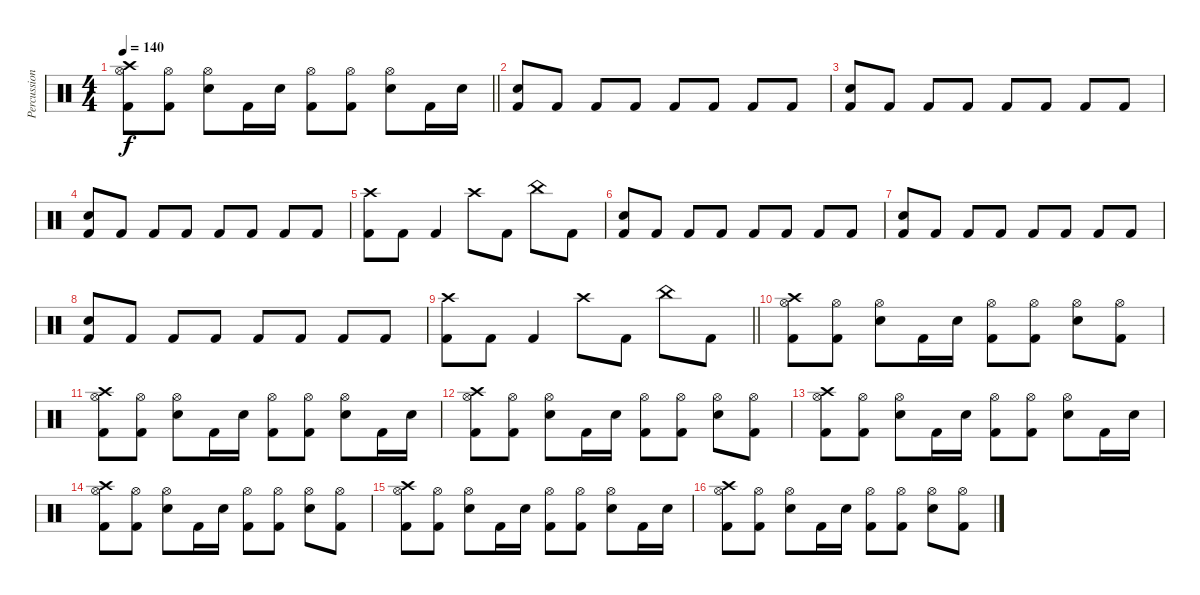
\track ("Percussion" "Percussion") {instrument percussion}
\staff {score}
\articulation defaults
\ts (4 4)
\tempo 140
\clef neutral
\barLineRight lightlight
\ks c
("Hi-Hat (open)" "Crash high (hit)" "Kick (hit) 2").8{dy f} ("Hi-Hat (open)" "Kick (hit) 2").8 ("Hi-Hat (open)" "Snare (hit) 2").8 "Kick (hit) 2".16 "Snare (hit) 2".16 ("Hi-Hat (open)" "Kick (hit) 2").8 ("Hi-Hat (open)" "Kick (hit) 2").8 ("Hi-Hat (open)" "Snare (hit) 2").8 "Kick (hit) 2".16 "Snare (hit) 2".16 |
\section ("" "")
("Kick (hit) 2" "Snare (hit) 2").8 "Kick (hit) 2".8 "Kick (hit) 2".8 "Kick (hit) 2".8 "Kick (hit) 2".8 "Kick (hit) 2".8 "Kick (hit) 2".8 "Kick (hit) 2".8 |
("Kick (hit) 2" "Snare (hit) 2").8 "Kick (hit) 2".8 "Kick (hit) 2".8 "Kick (hit) 2".8 "Kick (hit) 2".8 "Kick (hit) 2".8 "Kick (hit) 2".8 "Kick (hit) 2".8 |
("Kick (hit) 2" "Snare (hit) 2").8 "Kick (hit) 2".8 "Kick (hit) 2".8 "Kick (hit) 2".8 "Kick (hit) 2".8 "Kick (hit) 2".8 "Kick (hit) 2".8 "Kick (hit) 2".8 |
("Kick (hit) 2" "Crash high (hit)").8 "Kick (hit) 2".8 "Kick (hit) 2".4 "Crash high (hit)".8 "Kick (hit) 2".8 "China (hit)".8 "Kick (hit) 2".8 |
("Kick (hit) 2" "Snare (hit) 2").8 "Kick (hit) 2".8 "Kick (hit) 2".8 "Kick (hit) 2".8 "Kick (hit) 2".8 "Kick (hit) 2".8 "Kick (hit) 2".8 "Kick (hit) 2".8 |
("Kick (hit) 2" "Snare (hit) 2").8 "Kick (hit) 2".8 "Kick (hit) 2".8 "Kick (hit) 2".8 "Kick (hit) 2".8 "Kick (hit) 2".8 "Kick (hit) 2".8 "Kick (hit) 2".8 |
("Kick (hit) 2" "Snare (hit) 2").8 "Kick (hit) 2".8 "Kick (hit) 2".8 "Kick (hit) 2".8 "Kick (hit) 2".8 "Kick (hit) 2".8 "Kick (hit) 2".8 "Kick (hit) 2".8 |
\barLineRight lightlight
("Kick (hit) 2" "Crash high (hit)").8 "Kick (hit) 2".8 "Kick (hit) 2".4 "Crash high (hit)".8 "Kick (hit) 2".8 "China (hit)".8 "Kick (hit) 2".8 |
\section ("" "")
("Hi-Hat (open)" "Crash high (hit)" "Kick (hit) 2").8 ("Hi-Hat (open)" "Kick (hit) 2").8 ("Hi-Hat (open)" "Snare (hit) 2").8 "Kick (hit) 2".16 "Snare (hit) 2".16 ("Hi-Hat (open)" "Kick (hit) 2").8 ("Hi-Hat (open)" "Kick (hit) 2").8 ("Hi-Hat (open)" "Snare (hit) 2").8 ("Hi-Hat (open)" "Kick (hit) 2").8 |
("Hi-Hat (open)" "Crash high (hit)" "Kick (hit) 2").8 ("Hi-Hat (open)" "Kick (hit) 2").8 ("Hi-Hat (open)" "Snare (hit) 2").8 "Kick (hit) 2".16 "Snare (hit) 2".16 ("Hi-Hat (open)" "Kick (hit) 2").8 ("Hi-Hat (open)" "Kick (hit) 2").8 ("Hi-Hat (open)" "Snare (hit) 2").8 "Kick (hit) 2".16 "Snare (hit) 2".16 |
("Hi-Hat (open)" "Crash high (hit)" "Kick (hit) 2").8 ("Hi-Hat (open)" "Kick (hit) 2").8 ("Hi-Hat (open)" "Snare (hit) 2").8 "Kick (hit) 2".16 "Snare (hit) 2".16 ("Hi-Hat (open)" "Kick (hit) 2").8 ("Hi-Hat (open)" "Kick (hit) 2").8 ("Hi-Hat (open)" "Snare (hit) 2").8 ("Hi-Hat (open)" "Kick (hit) 2").8 |
("Hi-Hat (open)" "Crash high (hit)" "Kick (hit) 2").8 ("Hi-Hat (open)" "Kick (hit) 2").8 ("Hi-Hat (open)" "Snare (hit) 2").8 "Kick (hit) 2".16 "Snare (hit) 2".16 ("Hi-Hat (open)" "Kick (hit) 2").8 ("Hi-Hat (open)" "Kick (hit) 2").8 ("Hi-Hat (open)" "Snare (hit) 2").8 "Kick (hit) 2".16 "Snare (hit) 2".16 |
("Hi-Hat (open)" "Crash high (hit)" "Kick (hit) 2").8 ("Hi-Hat (open)" "Kick (hit) 2").8 ("Hi-Hat (open)" "Snare (hit) 2").8 "Kick (hit) 2".16 "Snare (hit) 2".16 ("Hi-Hat (open)" "Kick (hit) 2").8 ("Hi-Hat (open)" "Kick (hit) 2").8 ("Hi-Hat (open)" "Snare (hit) 2").8 ("Hi-Hat (open)" "Kick (hit) 2").8 |
("Hi-Hat (open)" "Crash high (hit)" "Kick (hit) 2").8 ("Hi-Hat (open)" "Kick (hit) 2").8 ("Hi-Hat (open)" "Snare (hit) 2").8 "Kick (hit) 2".16 "Snare (hit) 2".16 ("Hi-Hat (open)" "Kick (hit) 2").8 ("Hi-Hat (open)" "Kick (hit) 2").8 ("Hi-Hat (open)" "Snare (hit) 2").8 "Kick (hit) 2".16 "Snare (hit) 2".16 |
("Hi-Hat (open)" "Crash high (hit)" "Kick (hit) 2").8 ("Hi-Hat (open)" "Kick (hit) 2").8 ("Hi-Hat (open)" "Snare (hit) 2").8 "Kick (hit) 2".16 "Snare (hit) 2".16 ("Hi-Hat (open)" "Kick (hit) 2").8 ("Hi-Hat (open)" "Kick (hit) 2").8 ("Hi-Hat (open)" "Snare (hit) 2").8 ("Hi-Hat (open)" "Kick (hit) 2").8
